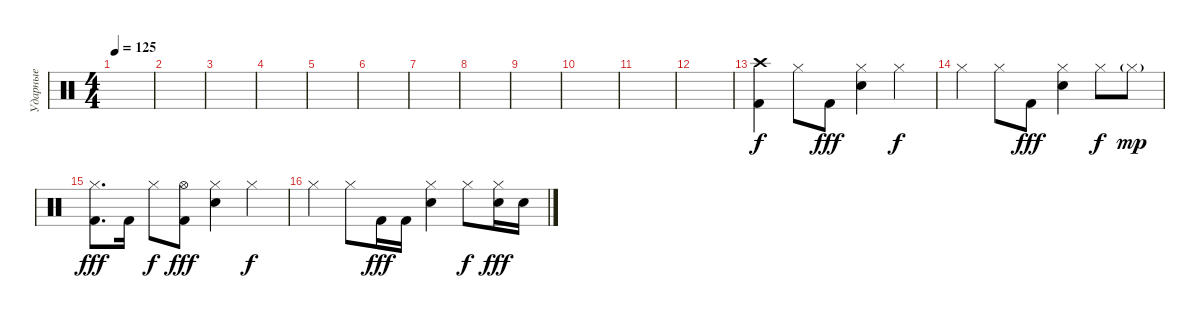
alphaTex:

\track ("Ударные" "Ударные") {instrument percussion}
\staff {score}
\articulation defaults
\ts (4 4)
\tempo 125
\clef neutral
\ks c
|
|
|
|
|
|
|
|
|
|
|
|
("Crash high (hit)" "Kick (hit) 2").4 "Hi-Hat (closed)".8{dy f} "Kick (hit) 2".8{dy fff} ("Hi-Hat (closed)" "Electric Snare (hit)").4 "Hi-Hat (closed)".4{dy f} |
"Hi-Hat (closed)".4 "Hi-Hat (closed)".8 "Kick (hit) 2".8{dy fff} ("Hi-Hat (closed)" "Electric Snare (hit)").4 "Hi-Hat (closed)".8{dy f} "Hi-Hat (closed)"{g}.8{dy mp} |
("Hi-Hat (closed)" "Kick (hit) 2").8{d dy fff} "Kick (hit) 2".16 "Hi-Hat (closed)".8{dy f} ("Hi-Hat (open)" "Kick (hit) 2").8{dy fff} ("Hi-Hat (closed)" "Electric Snare (hit)").4 "Hi-Hat (closed)".4{dy f} |
"Hi-Hat (closed)".4 "Hi-Hat (closed)".8 "Kick (hit) 2".16{dy fff} "Kick (hit) 2".16 ("Hi-Hat (closed)" "Electric Snare (hit)").4 "Hi-Hat (closed)".8{dy f} ("Hi-Hat (closed)" "Electric Snare (hit)").16{dy fff} "Electric Snare (hit)".16
